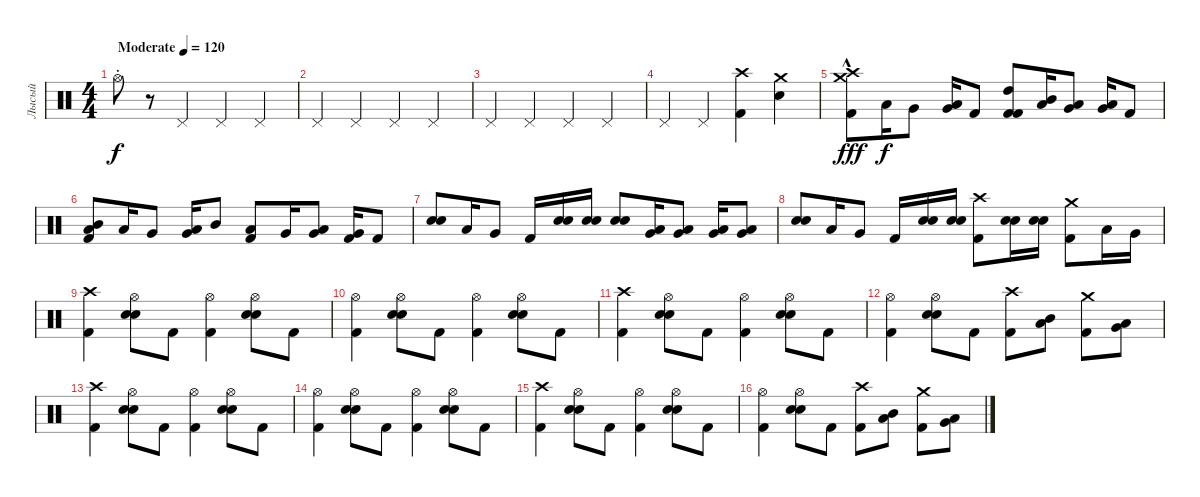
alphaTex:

\track ("Лысый" "Лысый") {instrument percussion}
\staff {score}
\articulation defaults
\ts (4 4)
\tempo (120 "Moderate")
\clef neutral
\ks c "Hi-Hat (open)"{st}.8{dy f}
r.8 "Pedal Hi-Hat (hit)".4 "Pedal Hi-Hat (hit)".4 "Pedal Hi-Hat (hit)".4 |
"Pedal Hi-Hat (hit)".4 "Pedal Hi-Hat (hit)".4 "Pedal Hi-Hat (hit)".4 "Pedal Hi-Hat (hit)".4 |
"Pedal Hi-Hat (hit)".4 "Pedal Hi-Hat (hit)".4 "Pedal Hi-Hat (hit)".4 "Pedal Hi-Hat (hit)".4 |
"Pedal Hi-Hat (hit)".4 "Pedal Hi-Hat (hit)".4 ("Kick (hit) 2" "Crash high (hit)").4 ("Snare (hit) 2" "Crash medium (hit)").4 |
("Kick (hit) 2"{hac} "Crash high (hit)" "Crash medium (hit)").8{dy fff} "Low Tom (hit)".16{dy f} "Very Low Tom (hit)".8 ("Very Low Tom (hit)" "Low Floor Tom (hit)").16 "Kick (hit) 2".8 ("Kick (hit) 2" "High Tom (hit)" "Kick (hit) 2").8 ("Mid Tom (hit)" "Low Tom (hit)").16 ("Low Tom (hit)" "Very Low Tom (hit)").8 ("Very Low Tom (hit)" "Low Tom (hit)").16 "Kick (hit) 2".8 |
("Kick (hit) 2" "Mid Tom (hit)" "Low Tom (hit)").8 "Low Tom (hit)".16 "Very Low Tom (hit)".8 ("Very Low Tom (hit)" "Low Floor Tom (hit)").16 "Mid Tom (hit)".8 ("Kick (hit) 2" "Low Tom (hit)").8 "Very Low Tom (hit)".16 ("Low Floor Tom (hit)" "Very Low Tom (hit)").8 ("Very Low Tom (hit)" "Kick (hit) 2").16 "Kick (hit) 2".8 |
("Snare (hit) 2" "Electric Snare (hit)").8 "Low Tom (hit)".16 "Very Low Tom (hit)".8 "Kick (hit) 2".16 ("Snare (hit) 2" "Electric Snare (hit)").16 ("Snare (hit) 2" "Electric Snare (hit)").16 ("Snare (hit) 2" "Electric Snare (hit)").8 ("Low Tom (hit)" "Very Low Tom (hit)").16 ("Very Low Tom (hit)" "Low Floor Tom (hit)").8 ("Low Floor Tom (hit)" "Very Low Tom (hit)").16 ("Low Tom (hit)" "Very Low Tom (hit)").8 |
("Snare (hit) 2" "Electric Snare (hit)").8 "Low Tom (hit)".16 "Very Low Tom (hit)".8 "Kick (hit) 2".16 ("Snare (hit) 2" "Electric Snare (hit)").16 ("Snare (hit) 2" "Electric Snare (hit)").16 ("Kick (hit) 2" "Crash high (hit)").8 ("Snare (hit) 2" "Electric Snare (hit)").16 ("Snare (hit) 2" "Electric Snare (hit)").16 ("Kick (hit) 2" "Crash medium (hit)").8 "Low Tom (hit)".16 "Very Low Tom (hit)".16 |
("Kick (hit) 2" "Crash high (hit)").4 ("Hi-Hat (open)" "Snare (hit) 2" "Electric Snare (hit)").8 "Kick (hit) 2".8 ("Kick (hit) 2" "Hi-Hat (open)").4 ("Hi-Hat (open)" "Snare (hit) 2" "Electric Snare (hit)").8 "Kick (hit) 2".8 |
("Kick (hit) 2" "Hi-Hat (open)").4 ("Hi-Hat (open)" "Snare (hit) 2" "Electric Snare (hit)").8 "Kick (hit) 2".8 ("Kick (hit) 2" "Hi-Hat (open)").4 ("Hi-Hat (open)" "Snare (hit) 2" "Electric Snare (hit)").8 "Kick (hit) 2".8 |
("Kick (hit) 2" "Crash high (hit)").4 ("Hi-Hat (open)" "Snare (hit) 2" "Electric Snare (hit)").8 "Kick (hit) 2".8 ("Kick (hit) 2" "Hi-Hat (open)").4 ("Hi-Hat (open)" "Snare (hit) 2" "Electric Snare (hit)").8 "Kick (hit) 2".8 |
("Kick (hit) 2" "Hi-Hat (open)").4 ("Hi-Hat (open)" "Snare (hit) 2" "Electric Snare (hit)").8 "Kick (hit) 2".8 ("Kick (hit) 2" "Crash high (hit)").8 ("Mid Tom (hit)" "Low Tom (hit)").8 ("Kick (hit) 2" "Crash medium (hit)").8 ("Very Low Tom (hit)" "Low Floor Tom (hit)").8 |
("Kick (hit) 2" "Crash high (hit)").4 ("Hi-Hat (open)" "Snare (hit) 2" "Electric Snare (hit)").8 "Kick (hit) 2".8 ("Kick (hit) 2" "Hi-Hat (open)").4 ("Hi-Hat (open)" "Snare (hit) 2" "Electric Snare (hit)").8 "Kick (hit) 2".8 |
("Kick (hit) 2" "Hi-Hat (open)").4 ("Hi-Hat (open)" "Snare (hit) 2" "Electric Snare (hit)").8 "Kick (hit) 2".8 ("Kick (hit) 2" "Hi-Hat (open)").4 ("Hi-Hat (open)" "Snare (hit) 2" "Electric Snare (hit)").8 "Kick (hit) 2".8 |
("Kick (hit) 2" "Crash high (hit)").4 ("Hi-Hat (open)" "Snare (hit) 2" "Electric Snare (hit)").8 "Kick (hit) 2".8 ("Kick (hit) 2" "Hi-Hat (open)").4 ("Hi-Hat (open)" "Snare (hit) 2" "Electric Snare (hit)").8 "Kick (hit) 2".8 |
("Kick (hit) 2" "Hi-Hat (open)").4 ("Hi-Hat (open)" "Snare (hit) 2" "Electric Snare (hit)").8 "Kick (hit) 2".8 ("Kick (hit) 2" "Crash high (hit)").8 ("Mid Tom (hit)" "Low Tom (hit)").8 ("Kick (hit) 2" "Crash medium (hit)").8 ("Very Low Tom (hit)" "Low Floor Tom (hit)").8
